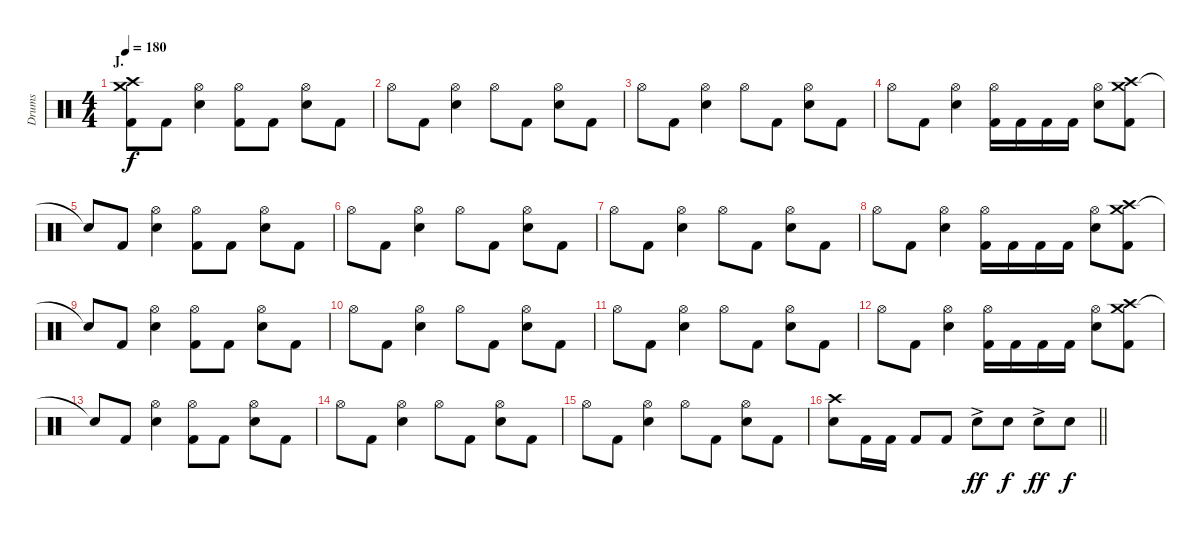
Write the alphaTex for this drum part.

\track ("Drums" "Drums") {instrument percussion}
\staff {score}
\articulation defaults
\ts (4 4)
\section ("" "J.")
\tempo 180
\clef neutral
\ks c
("Crash medium (hit)" "Crash high (hit)" "Kick (hit) 2").8{dy f} "Kick (hit) 2".8 ("Hi-Hat (open)" "Electric Snare (hit)").4 ("Hi-Hat (open)" "Kick (hit) 2").8 "Kick (hit) 2".8 ("Hi-Hat (open)" "Electric Snare (hit)").8 "Kick (hit) 2".8 |
"Hi-Hat (open)".8 "Kick (hit) 2".8 ("Hi-Hat (open)" "Electric Snare (hit)").4 "Hi-Hat (open)".8 "Kick (hit) 2".8 ("Hi-Hat (open)" "Electric Snare (hit)").8 "Kick (hit) 2".8 |
"Hi-Hat (open)".8 "Kick (hit) 2".8 ("Hi-Hat (open)" "Electric Snare (hit)").4 "Hi-Hat (open)".8 "Kick (hit) 2".8 ("Hi-Hat (open)" "Electric Snare (hit)").8 "Kick (hit) 2".8 |
"Hi-Hat (open)".8 "Kick (hit) 2".8 ("Hi-Hat (open)" "Electric Snare (hit)").4 ("Hi-Hat (open)" "Kick (hit) 2").16 "Kick (hit) 2".16 "Kick (hit) 2".16 "Kick (hit) 2".16 ("Hi-Hat (open)" "Electric Snare (hit)").8 ("Crash medium (hit)" "Crash high (hit)" "Kick (hit) 2").8 |
"Snare (hit)"{t}.8 "Kick (hit) 2".8 ("Hi-Hat (open)" "Electric Snare (hit)").4 ("Hi-Hat (open)" "Kick (hit) 2").8 "Kick (hit) 2".8 ("Hi-Hat (open)" "Electric Snare (hit)").8 "Kick (hit) 2".8 |
"Hi-Hat (open)".8 "Kick (hit) 2".8 ("Hi-Hat (open)" "Electric Snare (hit)").4 "Hi-Hat (open)".8 "Kick (hit) 2".8 ("Hi-Hat (open)" "Electric Snare (hit)").8 "Kick (hit) 2".8 |
"Hi-Hat (open)".8 "Kick (hit) 2".8 ("Hi-Hat (open)" "Electric Snare (hit)").4 "Hi-Hat (open)".8 "Kick (hit) 2".8 ("Hi-Hat (open)" "Electric Snare (hit)").8 "Kick (hit) 2".8 |
"Hi-Hat (open)".8 "Kick (hit) 2".8 ("Hi-Hat (open)" "Electric Snare (hit)").4 ("Hi-Hat (open)" "Kick (hit) 2").16 "Kick (hit) 2".16 "Kick (hit) 2".16 "Kick (hit) 2".16 ("Hi-Hat (open)" "Electric Snare (hit)").8 ("Crash medium (hit)" "Crash high (hit)" "Kick (hit) 2").8 |
"Snare (hit)"{t}.8 "Kick (hit) 2".8 ("Hi-Hat (open)" "Electric Snare (hit)").4 ("Hi-Hat (open)" "Kick (hit) 2").8 "Kick (hit) 2".8 ("Hi-Hat (open)" "Electric Snare (hit)").8 "Kick (hit) 2".8 |
"Hi-Hat (open)".8 "Kick (hit) 2".8 ("Hi-Hat (open)" "Electric Snare (hit)").4 "Hi-Hat (open)".8 "Kick (hit) 2".8 ("Hi-Hat (open)" "Electric Snare (hit)").8 "Kick (hit) 2".8 |
"Hi-Hat (open)".8 "Kick (hit) 2".8 ("Hi-Hat (open)" "Electric Snare (hit)").4 "Hi-Hat (open)".8 "Kick (hit) 2".8 ("Hi-Hat (open)" "Electric Snare (hit)").8 "Kick (hit) 2".8 |
"Hi-Hat (open)".8 "Kick (hit) 2".8 ("Hi-Hat (open)" "Electric Snare (hit)").4 ("Hi-Hat (open)" "Kick (hit) 2").16 "Kick (hit) 2".16 "Kick (hit) 2".16 "Kick (hit) 2".16 ("Hi-Hat (open)" "Electric Snare (hit)").8 ("Crash medium (hit)" "Crash high (hit)" "Kick (hit) 2").8 |
"Snare (hit)"{t}.8 "Kick (hit) 2".8 ("Hi-Hat (open)" "Electric Snare (hit)").4 ("Hi-Hat (open)" "Kick (hit) 2").8 "Kick (hit) 2".8 ("Hi-Hat (open)" "Electric Snare (hit)").8 "Kick (hit) 2".8 |
"Hi-Hat (open)".8 "Kick (hit) 2".8 ("Hi-Hat (open)" "Electric Snare (hit)").4 "Hi-Hat (open)".8 "Kick (hit) 2".8 ("Hi-Hat (open)" "Electric Snare (hit)").8 "Kick (hit) 2".8 |
"Hi-Hat (open)".8 "Kick (hit) 2".8 ("Hi-Hat (open)" "Electric Snare (hit)").4 "Hi-Hat (open)".8 "Kick (hit) 2".8 ("Hi-Hat (open)" "Electric Snare (hit)").8 "Kick (hit) 2".8 |
\barLineRight lightlight
("Crash high (hit)" "Electric Snare (hit)").8 "Kick (hit) 2".16 "Kick (hit) 2".16 "Kick (hit) 2".8 "Kick (hit) 2".8 "Electric Snare (hit)"{ac}.8{dy ff} "Electric Snare (hit)".8{dy f} "Electric Snare (hit)"{ac}.8{dy ff} "Electric Snare (hit)".8{dy f}
